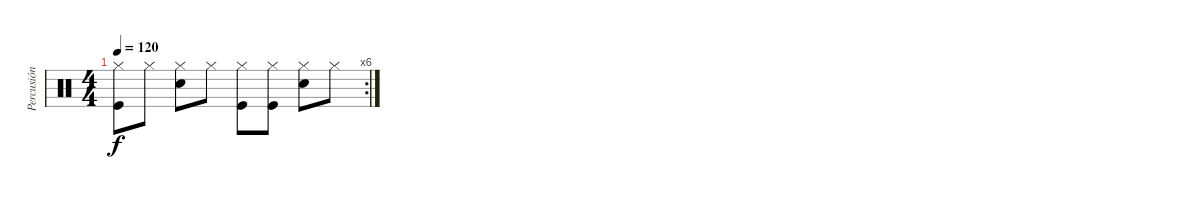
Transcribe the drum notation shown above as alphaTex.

\track ("Percusión" "Percusión") {instrument percussion}
\staff {score}
\articulation defaults
\rc 6
\ts (4 4)
\tempo 120
\clef neutral
\ks c
("Hi-Hat (closed)" "Kick (hit)").8{dy f} "Hi-Hat (closed)".8 ("Hi-Hat (closed)" "Electric Snare (hit)").8 "Hi-Hat (closed)".8 ("Hi-Hat (closed)" "Kick (hit)").8 ("Hi-Hat (closed)" "Kick (hit)").8 ("Hi-Hat (closed)" "Electric Snare (hit)").8 "Hi-Hat (closed)".8
